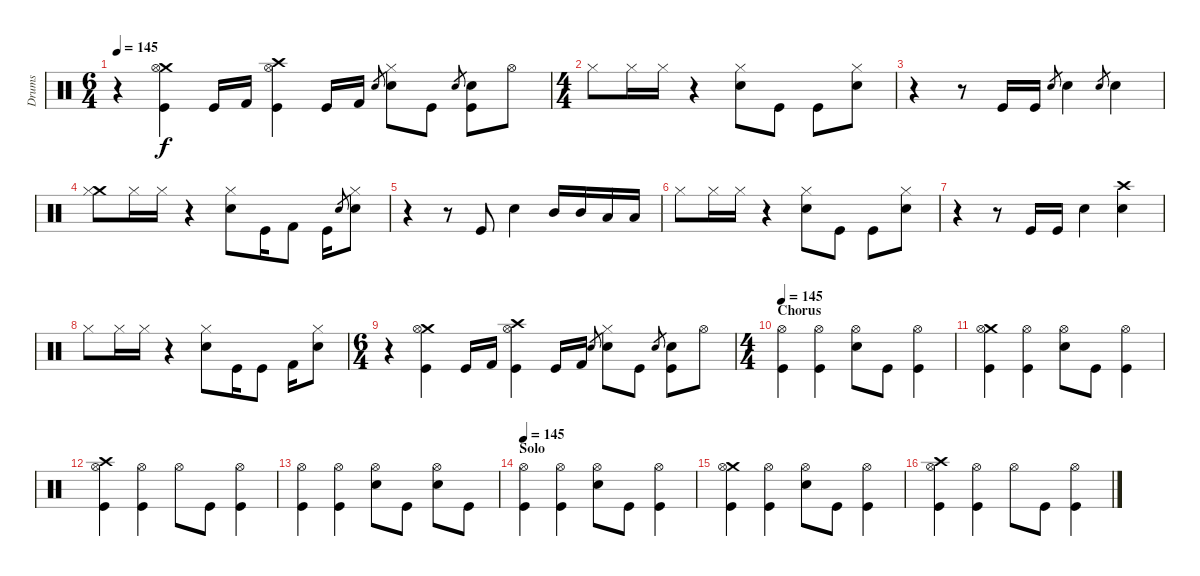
\track ("Drums" "Drums") {instrument percussion}
\staff {score}
\articulation defaults
\ts (6 4)
\tempo 145
\clef neutral
\ks c
r.4{dy f} ("Crash medium (hit)" "Hi-Hat (open)" "Kick (hit)").4 "Kick (hit)".16 "Kick (hit) 2".16 ("Crash high (hit)" "Hi-Hat (open)" "Kick (hit)").4 "Kick (hit)".16 "Kick (hit) 2".16 "Snare (hit) 2".8{gr} ("Hi-Hat (closed)" "Snare (hit) 2").8 "Kick (hit)".8 "Snare (hit) 2".8{gr} ("Snare (hit) 2" "Kick (hit)").8 "Hi-Hat (open)".8 |
\ts (4 4)
"Hi-Hat (closed)".8 "Hi-Hat (closed)".16 "Hi-Hat (closed)".16 r.4 ("Hi-Hat (closed)" "Snare (hit) 2").8 "Kick (hit)".8 "Kick (hit)".8 ("Hi-Hat (closed)" "Snare (hit) 2").8 |
r.4 r.8 "Kick (hit)".16 "Kick (hit)".16 "Snare (hit) 2".8{gr} "Snare (hit) 2".4 "Snare (hit) 2".8{gr} "Snare (hit) 2".4 |
("Crash medium (hit)" "Hi-Hat (closed)").8 "Hi-Hat (closed)".16 "Hi-Hat (closed)".16 r.4 ("Hi-Hat (closed)" "Snare (hit) 2").8 "Kick (hit)".16 "Kick (hit) 2".8 "Kick (hit)".16 "Snare (hit) 2".8{gr} ("Hi-Hat (closed)" "Snare (hit) 2").8 |
r.4 r.8 "Kick (hit)".8 "Snare (hit) 2".4 "Mid Tom (hit)".16 "Mid Tom (hit)".16 "Low Tom (hit)".16 "Low Tom (hit)".16 |
"Hi-Hat (closed)".8 "Hi-Hat (closed)".16 "Hi-Hat (closed)".16 r.4 ("Hi-Hat (closed)" "Snare (hit) 2").8 "Kick (hit)".8 "Kick (hit)".8 ("Hi-Hat (closed)" "Snare (hit) 2").8 |
r.4 r.8 "Kick (hit)".16 "Kick (hit)".16 "Snare (hit) 2".4 ("Crash high (hit)" "Snare (hit) 2").4 |
"Hi-Hat (closed)".8 "Hi-Hat (closed)".16 "Hi-Hat (closed)".16 r.4 ("Hi-Hat (closed)" "Snare (hit) 2").8 "Kick (hit)".16 "Kick (hit)".8 "Kick (hit) 2".16 ("Hi-Hat (closed)" "Snare (hit) 2").8 |
\ts (6 4)
r.4 ("Crash medium (hit)" "Hi-Hat (open)" "Kick (hit)").4 "Kick (hit)".16 "Kick (hit) 2".16 ("Crash high (hit)" "Hi-Hat (open)" "Kick (hit)").4 "Kick (hit)".16 "Kick (hit) 2".16 "Snare (hit) 2".8{gr} ("Hi-Hat (closed)" "Snare (hit) 2").8 "Kick (hit)".8 "Snare (hit) 2".8{gr} ("Snare (hit) 2" "Kick (hit)").8 "Hi-Hat (open)".8 |
\ts (4 4)
\section ("" "Chorus")
\tempo 145
("Hi-Hat (open)" "Kick (hit)").4 ("Hi-Hat (open)" "Kick (hit)").4 ("Hi-Hat (open)" "Snare (hit) 2").8 "Kick (hit)".8 ("Hi-Hat (open)" "Kick (hit)").4 |
("Crash medium (hit)" "Hi-Hat (open)" "Kick (hit)").4 ("Hi-Hat (open)" "Kick (hit)").4 ("Hi-Hat (open)" "Snare (hit) 2").8 "Kick (hit)".8 ("Hi-Hat (open)" "Kick (hit)").4 |
("Crash high (hit)" "Hi-Hat (open)" "Kick (hit)").4 ("Hi-Hat (open)" "Kick (hit)").4 "Hi-Hat (open)".8 "Kick (hit)".8 ("Hi-Hat (open)" "Kick (hit)").4 |
("Hi-Hat (open)" "Kick (hit)").4 ("Hi-Hat (open)" "Kick (hit)").4 ("Hi-Hat (open)" "Snare (hit) 2").8 "Kick (hit)".8 ("Hi-Hat (open)" "Snare (hit) 2").8 "Kick (hit)".8 |
\section ("" "Solo")
\tempo 145
("Hi-Hat (open)" "Kick (hit)").4 ("Hi-Hat (open)" "Kick (hit)").4 ("Hi-Hat (open)" "Snare (hit) 2").8 "Kick (hit)".8 ("Hi-Hat (open)" "Kick (hit)").4 |
("Crash medium (hit)" "Hi-Hat (open)" "Kick (hit)").4 ("Hi-Hat (open)" "Kick (hit)").4 ("Hi-Hat (open)" "Snare (hit) 2").8 "Kick (hit)".8 ("Hi-Hat (open)" "Kick (hit)").4 |
("Crash high (hit)" "Hi-Hat (open)" "Kick (hit)").4 ("Hi-Hat (open)" "Kick (hit)").4 "Hi-Hat (open)".8 "Kick (hit)".8 ("Hi-Hat (open)" "Kick (hit)").4
